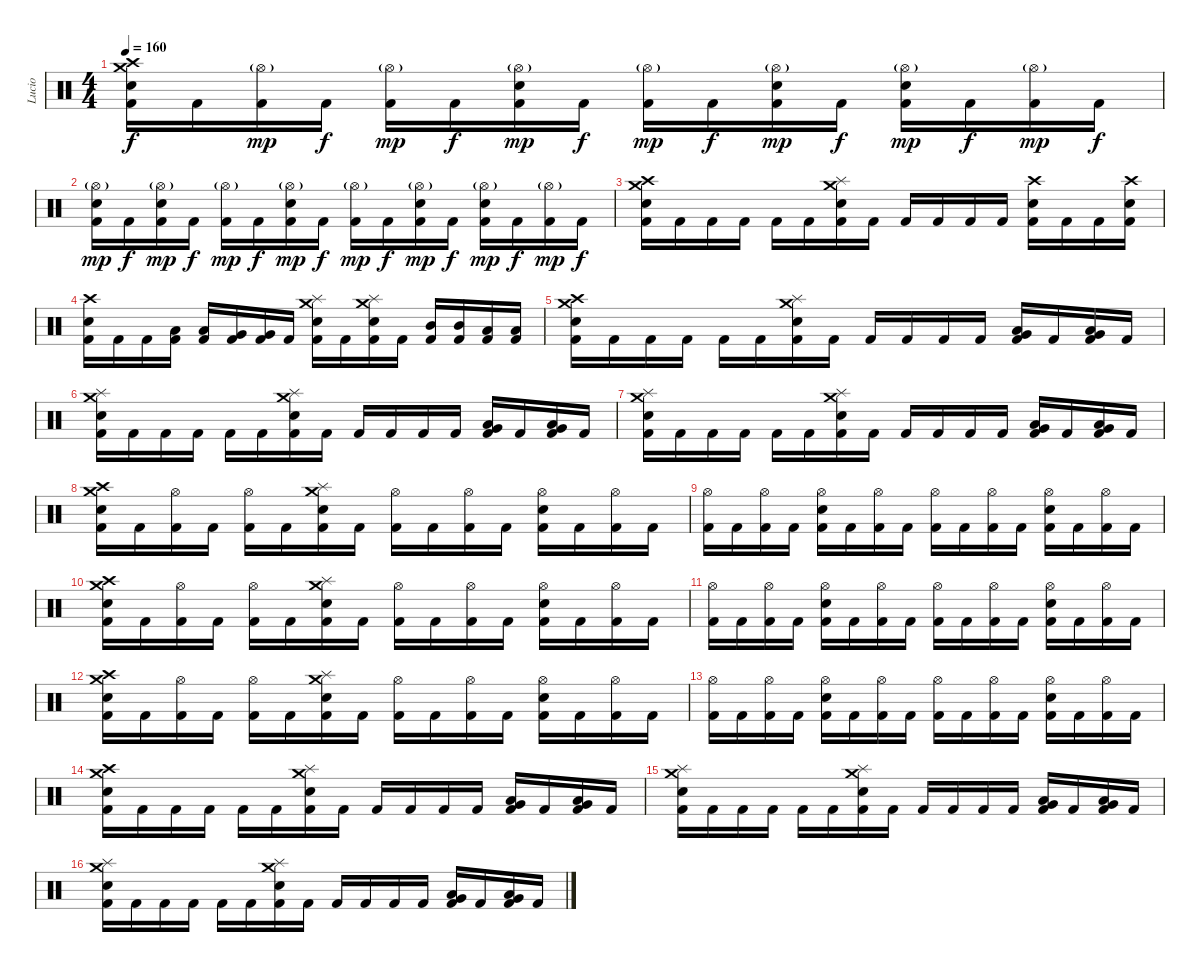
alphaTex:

\track ("Lucio" "Lucio") {instrument percussion}
\staff {score}
\articulation defaults
\ts (4 4)
\tempo 160
\clef neutral
\ks c
("Crash medium (hit)" "Crash high (hit)" "Electric Snare (hit)" "Kick (hit) 2").16{dy f} "Kick (hit) 2".16 ("Hi-Hat (open)"{g} "Kick (hit) 2").16{dy mp} "Kick (hit) 2".16{dy f} ("Hi-Hat (open)"{g} "Kick (hit) 2").16{dy mp} "Kick (hit) 2".16{dy f} ("Hi-Hat (open)"{g} "Electric Snare (hit)" "Kick (hit) 2").16{dy mp} "Kick (hit) 2".16{dy f} ("Hi-Hat (open)"{g} "Kick (hit) 2").16{dy mp} "Kick (hit) 2".16{dy f} ("Hi-Hat (open)"{g} "Electric Snare (hit)" "Kick (hit) 2").16{dy mp} "Kick (hit) 2".16{dy f} ("Hi-Hat (open)"{g} "Electric Snare (hit)" "Kick (hit) 2").16{dy mp} "Kick (hit) 2".16{dy f} ("Hi-Hat (open)"{g} "Kick (hit) 2").16{dy mp} "Kick (hit) 2".16{dy f} |
("Hi-Hat (open)"{g} "Electric Snare (hit)" "Kick (hit) 2").16{dy mp} "Kick (hit) 2".16{dy f} ("Hi-Hat (open)"{g} "Electric Snare (hit)" "Kick (hit) 2").16{dy mp} "Kick (hit) 2".16{dy f} ("Hi-Hat (open)"{g} "Kick (hit) 2").16{dy mp} "Kick (hit) 2".16{dy f} ("Hi-Hat (open)"{g} "Electric Snare (hit)" "Kick (hit) 2").16{dy mp} "Kick (hit) 2".16{dy f} ("Hi-Hat (open)"{g} "Kick (hit) 2").16{dy mp} "Kick (hit) 2".16{dy f} ("Hi-Hat (open)"{g} "Electric Snare (hit)" "Kick (hit) 2").16{dy mp} "Kick (hit) 2".16{dy f} ("Hi-Hat (open)"{g} "Electric Snare (hit)" "Kick (hit) 2").16{dy mp} "Kick (hit) 2".16{dy f} ("Hi-Hat (open)"{g} "Kick (hit) 2").16{dy mp} "Kick (hit) 2".16{dy f} |
("Crash medium (hit)" "Crash high (hit)" "Electric Snare (hit)" "Kick (hit) 2").16 "Kick (hit) 2".16 "Kick (hit) 2".16 "Kick (hit) 2".16 "Kick (hit) 2".16 "Kick (hit) 2".16 ("Crash medium (hit)" "Splash (hit)" "Electric Snare (hit)" "Kick (hit) 2").16 "Kick (hit) 2".16 "Kick (hit) 2".16 "Kick (hit) 2".16 "Kick (hit) 2".16 "Kick (hit) 2".16 ("Crash high (hit)" "Electric Snare (hit)" "Kick (hit) 2").16 "Kick (hit) 2".16 "Kick (hit) 2".16 ("Crash high (hit)" "Electric Snare (hit)" "Kick (hit) 2").16 |
("Crash high (hit)" "Electric Snare (hit)" "Kick (hit) 2").16 "Kick (hit) 2".16 "Kick (hit) 2".16 ("Low Tom (hit)" "Kick (hit) 2").16 ("Low Tom (hit)" "Kick (hit) 2").16 ("Very Low Tom (hit)" "Kick (hit) 2").16 ("Very Low Tom (hit)" "Kick (hit) 2").16 "Kick (hit) 2".16 ("Crash medium (hit)" "Splash (hit)" "Electric Snare (hit)" "Kick (hit) 2").16 "Kick (hit) 2".16 ("Crash medium (hit)" "Splash (hit)" "Electric Snare (hit)" "Kick (hit) 2").16 "Kick (hit) 2".16 ("Mid Tom (hit)" "Kick (hit) 2").16 ("Mid Tom (hit)" "Kick (hit) 2").16 ("Low Tom (hit)" "Kick (hit) 2").16 ("Low Tom (hit)" "Kick (hit) 2").16 |
("Crash medium (hit)" "Crash high (hit)" "Electric Snare (hit)" "Kick (hit) 2").16 "Kick (hit) 2".16 "Kick (hit) 2".16 "Kick (hit) 2".16 "Kick (hit) 2".16 "Kick (hit) 2".16 ("Crash medium (hit)" "Splash (hit)" "Electric Snare (hit)" "Kick (hit) 2").16 "Kick (hit) 2".16 "Kick (hit) 2".16 "Kick (hit) 2".16 "Kick (hit) 2".16 "Kick (hit) 2".16 ("Low Tom (hit)" "Very Low Tom (hit)" "Kick (hit) 2").16 "Kick (hit) 2".16 ("Low Tom (hit)" "Very Low Tom (hit)" "Kick (hit) 2").16 "Kick (hit) 2".16 |
("Crash medium (hit)" "Splash (hit)" "Electric Snare (hit)" "Kick (hit) 2").16 "Kick (hit) 2".16 "Kick (hit) 2".16 "Kick (hit) 2".16 "Kick (hit) 2".16 "Kick (hit) 2".16 ("Crash medium (hit)" "Splash (hit)" "Electric Snare (hit)" "Kick (hit) 2").16 "Kick (hit) 2".16 "Kick (hit) 2".16 "Kick (hit) 2".16 "Kick (hit) 2".16 "Kick (hit) 2".16 ("Low Tom (hit)" "Very Low Tom (hit)" "Kick (hit) 2").16 "Kick (hit) 2".16 ("Low Tom (hit)" "Very Low Tom (hit)" "Kick (hit) 2").16 "Kick (hit) 2".16 |
("Crash medium (hit)" "Splash (hit)" "Electric Snare (hit)" "Kick (hit) 2").16 "Kick (hit) 2".16 "Kick (hit) 2".16 "Kick (hit) 2".16 "Kick (hit) 2".16 "Kick (hit) 2".16 ("Crash medium (hit)" "Splash (hit)" "Electric Snare (hit)" "Kick (hit) 2").16 "Kick (hit) 2".16 "Kick (hit) 2".16 "Kick (hit) 2".16 "Kick (hit) 2".16 "Kick (hit) 2".16 ("Low Tom (hit)" "Very Low Tom (hit)" "Kick (hit) 2").16 "Kick (hit) 2".16 ("Low Tom (hit)" "Very Low Tom (hit)" "Kick (hit) 2").16 "Kick (hit) 2".16 |
("Crash medium (hit)" "Crash high (hit)" "Electric Snare (hit)" "Kick (hit) 2").16 "Kick (hit) 2".16 ("Hi-Hat (open)" "Kick (hit) 2").16 "Kick (hit) 2".16 ("Hi-Hat (open)" "Kick (hit) 2").16 "Kick (hit) 2".16 ("Crash medium (hit)" "Splash (hit)" "Electric Snare (hit)" "Kick (hit) 2").16 "Kick (hit) 2".16 ("Hi-Hat (open)" "Kick (hit) 2").16 "Kick (hit) 2".16 ("Hi-Hat (open)" "Kick (hit) 2").16 "Kick (hit) 2".16 ("Hi-Hat (open)" "Electric Snare (hit)" "Kick (hit) 2").16 "Kick (hit) 2".16 ("Hi-Hat (open)" "Kick (hit) 2").16 "Kick (hit) 2".16 |
("Hi-Hat (open)" "Kick (hit) 2").16 "Kick (hit) 2".16 ("Hi-Hat (open)" "Kick (hit) 2").16 "Kick (hit) 2".16 ("Hi-Hat (open)" "Electric Snare (hit)" "Kick (hit) 2").16 "Kick (hit) 2".16 ("Hi-Hat (open)" "Kick (hit) 2").16 "Kick (hit) 2".16 ("Hi-Hat (open)" "Kick (hit) 2").16 "Kick (hit) 2".16 ("Hi-Hat (open)" "Kick (hit) 2").16 "Kick (hit) 2".16 ("Hi-Hat (open)" "Electric Snare (hit)" "Kick (hit) 2").16 "Kick (hit) 2".16 ("Hi-Hat (open)" "Kick (hit) 2").16 "Kick (hit) 2".16 |
("Crash medium (hit)" "Crash high (hit)" "Electric Snare (hit)" "Kick (hit) 2").16 "Kick (hit) 2".16 ("Hi-Hat (open)" "Kick (hit) 2").16 "Kick (hit) 2".16 ("Hi-Hat (open)" "Kick (hit) 2").16 "Kick (hit) 2".16 ("Crash medium (hit)" "Splash (hit)" "Electric Snare (hit)" "Kick (hit) 2").16 "Kick (hit) 2".16 ("Hi-Hat (open)" "Kick (hit) 2").16 "Kick (hit) 2".16 ("Hi-Hat (open)" "Kick (hit) 2").16 "Kick (hit) 2".16 ("Hi-Hat (open)" "Electric Snare (hit)" "Kick (hit) 2").16 "Kick (hit) 2".16 ("Hi-Hat (open)" "Kick (hit) 2").16 "Kick (hit) 2".16 |
("Hi-Hat (open)" "Kick (hit) 2").16 "Kick (hit) 2".16 ("Hi-Hat (open)" "Kick (hit) 2").16 "Kick (hit) 2".16 ("Hi-Hat (open)" "Electric Snare (hit)" "Kick (hit) 2").16 "Kick (hit) 2".16 ("Hi-Hat (open)" "Kick (hit) 2").16 "Kick (hit) 2".16 ("Hi-Hat (open)" "Kick (hit) 2").16 "Kick (hit) 2".16 ("Hi-Hat (open)" "Kick (hit) 2").16 "Kick (hit) 2".16 ("Hi-Hat (open)" "Electric Snare (hit)" "Kick (hit) 2").16 "Kick (hit) 2".16 ("Hi-Hat (open)" "Kick (hit) 2").16 "Kick (hit) 2".16 |
("Crash medium (hit)" "Crash high (hit)" "Electric Snare (hit)" "Kick (hit) 2").16 "Kick (hit) 2".16 ("Hi-Hat (open)" "Kick (hit) 2").16 "Kick (hit) 2".16 ("Hi-Hat (open)" "Kick (hit) 2").16 "Kick (hit) 2".16 ("Crash medium (hit)" "Splash (hit)" "Electric Snare (hit)" "Kick (hit) 2").16 "Kick (hit) 2".16 ("Hi-Hat (open)" "Kick (hit) 2").16 "Kick (hit) 2".16 ("Hi-Hat (open)" "Kick (hit) 2").16 "Kick (hit) 2".16 ("Hi-Hat (open)" "Electric Snare (hit)" "Kick (hit) 2").16 "Kick (hit) 2".16 ("Hi-Hat (open)" "Kick (hit) 2").16 "Kick (hit) 2".16 |
("Hi-Hat (open)" "Kick (hit) 2").16 "Kick (hit) 2".16 ("Hi-Hat (open)" "Kick (hit) 2").16 "Kick (hit) 2".16 ("Hi-Hat (open)" "Electric Snare (hit)" "Kick (hit) 2").16 "Kick (hit) 2".16 ("Hi-Hat (open)" "Kick (hit) 2").16 "Kick (hit) 2".16 ("Hi-Hat (open)" "Kick (hit) 2").16 "Kick (hit) 2".16 ("Hi-Hat (open)" "Kick (hit) 2").16 "Kick (hit) 2".16 ("Hi-Hat (open)" "Electric Snare (hit)" "Kick (hit) 2").16 "Kick (hit) 2".16 ("Hi-Hat (open)" "Kick (hit) 2").16 "Kick (hit) 2".16 |
("Crash medium (hit)" "Crash high (hit)" "Electric Snare (hit)" "Kick (hit) 2").16 "Kick (hit) 2".16 "Kick (hit) 2".16 "Kick (hit) 2".16 "Kick (hit) 2".16 "Kick (hit) 2".16 ("Crash medium (hit)" "Splash (hit)" "Electric Snare (hit)" "Kick (hit) 2").16 "Kick (hit) 2".16 "Kick (hit) 2".16 "Kick (hit) 2".16 "Kick (hit) 2".16 "Kick (hit) 2".16 ("Low Tom (hit)" "Very Low Tom (hit)" "Kick (hit) 2").16 "Kick (hit) 2".16 ("Low Tom (hit)" "Very Low Tom (hit)" "Kick (hit) 2").16 "Kick (hit) 2".16 |
("Crash medium (hit)" "Splash (hit)" "Electric Snare (hit)" "Kick (hit) 2").16 "Kick (hit) 2".16 "Kick (hit) 2".16 "Kick (hit) 2".16 "Kick (hit) 2".16 "Kick (hit) 2".16 ("Crash medium (hit)" "Splash (hit)" "Electric Snare (hit)" "Kick (hit) 2").16 "Kick (hit) 2".16 "Kick (hit) 2".16 "Kick (hit) 2".16 "Kick (hit) 2".16 "Kick (hit) 2".16 ("Low Tom (hit)" "Very Low Tom (hit)" "Kick (hit) 2").16 "Kick (hit) 2".16 ("Low Tom (hit)" "Very Low Tom (hit)" "Kick (hit) 2").16 "Kick (hit) 2".16 |
("Crash medium (hit)" "Splash (hit)" "Electric Snare (hit)" "Kick (hit) 2").16 "Kick (hit) 2".16 "Kick (hit) 2".16 "Kick (hit) 2".16 "Kick (hit) 2".16 "Kick (hit) 2".16 ("Crash medium (hit)" "Splash (hit)" "Electric Snare (hit)" "Kick (hit) 2").16 "Kick (hit) 2".16 "Kick (hit) 2".16 "Kick (hit) 2".16 "Kick (hit) 2".16 "Kick (hit) 2".16 ("Low Tom (hit)" "Very Low Tom (hit)" "Kick (hit) 2").16 "Kick (hit) 2".16 ("Low Tom (hit)" "Very Low Tom (hit)" "Kick (hit) 2").16 "Kick (hit) 2".16
